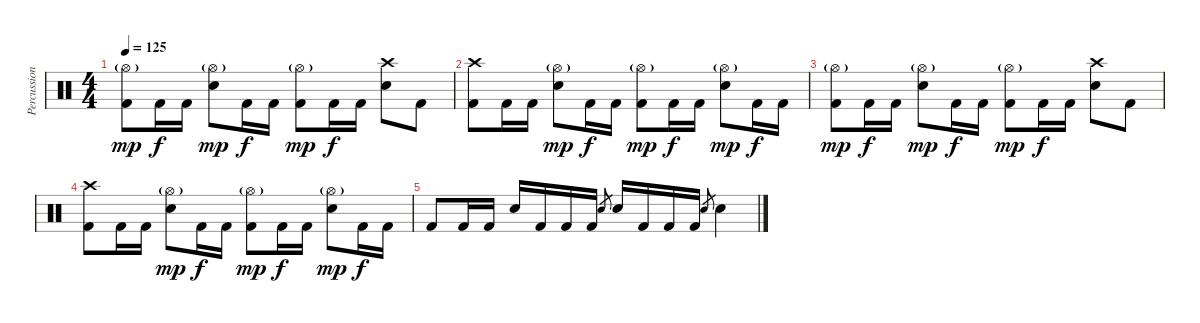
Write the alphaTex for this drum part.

\track ("Percussion" "Percussion") {instrument percussion}
\staff {score}
\articulation defaults
\ts (4 4)
\tempo 125
\clef neutral
\ks c
("Hi-Hat (open)"{g} "Kick (hit) 2").8{dy mp} "Kick (hit) 2".16{dy f} "Kick (hit) 2".16 ("Hi-Hat (open)"{g} "Electric Snare (hit)").8{dy mp} "Kick (hit) 2".16{dy f} "Kick (hit) 2".16 ("Hi-Hat (open)"{g} "Kick (hit) 2").8{dy mp} "Kick (hit) 2".16{dy f} "Kick (hit) 2".16 ("Crash high (hit)" "Electric Snare (hit)").8 "Kick (hit) 2".8 |
("Crash high (hit)" "Kick (hit) 2").8 "Kick (hit) 2".16 "Kick (hit) 2".16 ("Hi-Hat (open)"{g} "Electric Snare (hit)").8{dy mp} "Kick (hit) 2".16{dy f} "Kick (hit) 2".16 ("Hi-Hat (open)"{g} "Kick (hit) 2").8{dy mp} "Kick (hit) 2".16{dy f} "Kick (hit) 2".16 ("Hi-Hat (open)"{g} "Electric Snare (hit)").8{dy mp} "Kick (hit) 2".16{dy f} "Kick (hit) 2".16 |
("Hi-Hat (open)"{g} "Kick (hit) 2").8{dy mp} "Kick (hit) 2".16{dy f} "Kick (hit) 2".16 ("Hi-Hat (open)"{g} "Electric Snare (hit)").8{dy mp} "Kick (hit) 2".16{dy f} "Kick (hit) 2".16 ("Hi-Hat (open)"{g} "Kick (hit) 2").8{dy mp} "Kick (hit) 2".16{dy f} "Kick (hit) 2".16 ("Crash high (hit)" "Electric Snare (hit)").8 "Kick (hit) 2".8 |
("Crash high (hit)" "Kick (hit) 2").8 "Kick (hit) 2".16 "Kick (hit) 2".16 ("Hi-Hat (open)"{g} "Electric Snare (hit)").8{dy mp} "Kick (hit) 2".16{dy f} "Kick (hit) 2".16 ("Hi-Hat (open)"{g} "Kick (hit) 2").8{dy mp} "Kick (hit) 2".16{dy f} "Kick (hit) 2".16 ("Hi-Hat (open)"{g} "Electric Snare (hit)").8{dy mp} "Kick (hit) 2".16{dy f} "Kick (hit) 2".16 |
"Kick (hit) 2".8 "Kick (hit) 2".16 "Kick (hit) 2".16 "Electric Snare (hit)".16 "Kick (hit) 2".16 "Kick (hit) 2".16 "Kick (hit) 2".16 "Electric Snare (hit)".8{gr} "Electric Snare (hit)".16 "Kick (hit) 2".16 "Kick (hit) 2".16 "Kick (hit) 2".16 "Electric Snare (hit)".8{gr} "Electric Snare (hit)".4
